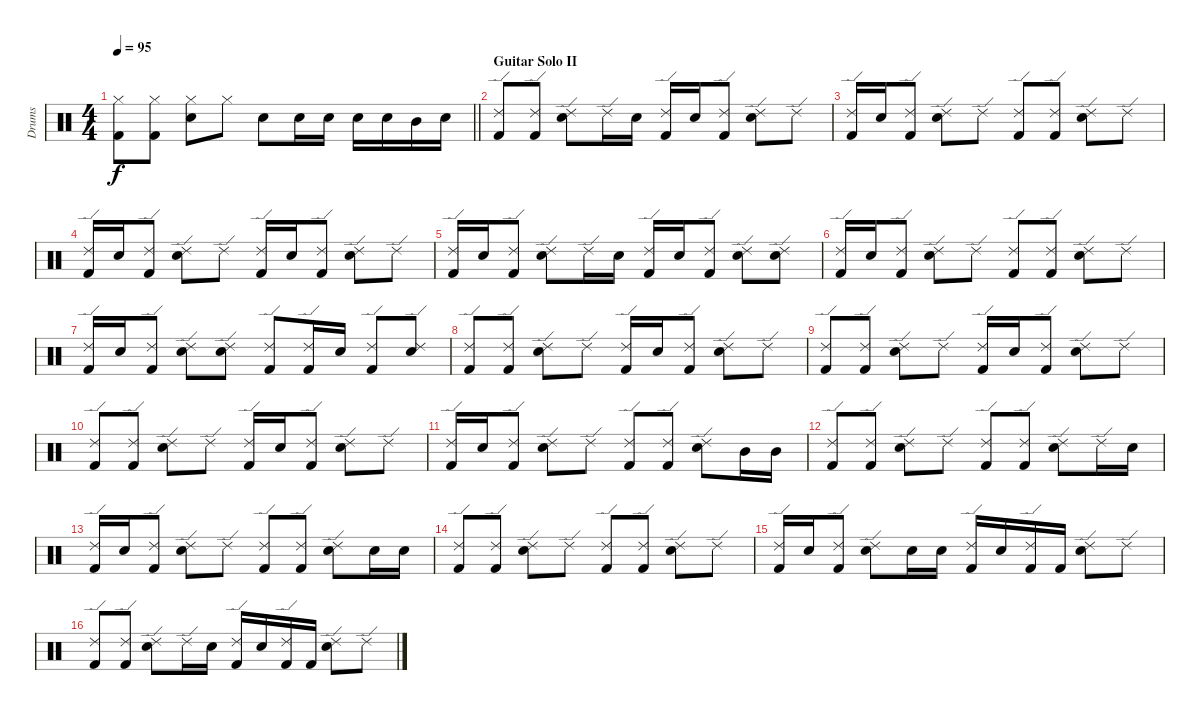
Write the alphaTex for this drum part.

\track ("Drums" "Drums") {instrument percussion}
\staff {score}
\articulation defaults
\ts (4 4)
\tempo 95
\clef neutral
\barLineRight lightlight
\ks c
("Hi-Hat (closed)" "Kick (hit) 2").8{dy f} ("Hi-Hat (closed)" "Kick (hit) 2").8 ("Hi-Hat (closed)" "Snare (hit) 2").8 "Hi-Hat (closed)".8 "Snare (hit) 2".8 "Snare (hit) 2".16 "Snare (hit) 2".16 "Snare (hit) 2".16 "Snare (hit) 2".16 "Mid Tom (hit)".16 "Snare (hit) 2".16 |
\section ("" "Guitar Solo II")
("Ride (edge) 2" "Kick (hit) 2").8 ("Ride (edge) 2" "Kick (hit) 2").8 ("Ride (edge) 2" "Snare (hit) 2").8 "Ride (edge) 2".16 "Snare (hit) 2".16 ("Ride (edge) 2" "Kick (hit) 2").16 "Snare (hit) 2".16 ("Ride (edge) 2" "Kick (hit) 2").8 ("Ride (edge) 2" "Snare (hit) 2").8 "Ride (edge) 2".8 |
("Ride (edge) 2" "Kick (hit) 2").16 "Snare (hit) 2".16 ("Ride (edge) 2" "Kick (hit) 2").8 ("Ride (edge) 2" "Snare (hit) 2").8 "Ride (edge) 2".8 ("Ride (edge) 2" "Kick (hit) 2").8 ("Ride (edge) 2" "Kick (hit) 2").8 ("Ride (edge) 2" "Snare (hit) 2").8 "Ride (edge) 2".8 |
("Ride (edge) 2" "Kick (hit) 2").16 "Snare (hit) 2".16 ("Ride (edge) 2" "Kick (hit) 2").8 ("Ride (edge) 2" "Snare (hit) 2").8 "Ride (edge) 2".8 ("Ride (edge) 2" "Kick (hit) 2").16 "Snare (hit) 2".16 ("Ride (edge) 2" "Kick (hit) 2").8 ("Ride (edge) 2" "Snare (hit) 2").8 "Ride (edge) 2".8 |
("Ride (edge) 2" "Kick (hit) 2").16 "Snare (hit) 2".16 ("Ride (edge) 2" "Kick (hit) 2").8 ("Ride (edge) 2" "Snare (hit) 2").8 "Ride (edge) 2".16 "Snare (hit) 2".16 ("Ride (edge) 2" "Kick (hit) 2").16 "Snare (hit) 2".16 ("Ride (edge) 2" "Kick (hit) 2").8 ("Ride (edge) 2" "Snare (hit) 2").8 ("Ride (edge) 2" "Snare (hit) 2").8 |
("Ride (edge) 2" "Kick (hit) 2").16 "Snare (hit) 2".16 ("Ride (edge) 2" "Kick (hit) 2").8 ("Ride (edge) 2" "Snare (hit) 2").8 "Ride (edge) 2".8 ("Ride (edge) 2" "Kick (hit) 2").8 ("Ride (edge) 2" "Kick (hit) 2").8 ("Ride (edge) 2" "Snare (hit) 2").8 "Ride (edge) 2".8 |
("Ride (edge) 2" "Kick (hit) 2").16 "Snare (hit) 2".16 ("Ride (edge) 2" "Kick (hit) 2").8 ("Ride (edge) 2" "Snare (hit) 2").8 ("Ride (edge) 2" "Snare (hit) 2").8 ("Ride (edge) 2" "Kick (hit) 2").8 ("Ride (edge) 2" "Kick (hit) 2").16 "Snare (hit) 2".16 ("Ride (edge) 2" "Kick (hit) 2").8 ("Ride (edge) 2" "Snare (hit) 2").8 |
("Ride (edge) 2" "Kick (hit) 2").8 ("Ride (edge) 2" "Kick (hit) 2").8 ("Ride (edge) 2" "Snare (hit) 2").8 "Ride (edge) 2".8 ("Ride (edge) 2" "Kick (hit) 2").16 "Snare (hit) 2".16 ("Ride (edge) 2" "Kick (hit) 2").8 ("Ride (edge) 2" "Snare (hit) 2").8 "Ride (edge) 2".8 |
("Ride (edge) 2" "Kick (hit) 2").8 ("Ride (edge) 2" "Kick (hit) 2").8 ("Ride (edge) 2" "Snare (hit) 2").8 "Ride (edge) 2".8 ("Ride (edge) 2" "Kick (hit) 2").16 "Snare (hit) 2".16 ("Ride (edge) 2" "Kick (hit) 2").8 ("Ride (edge) 2" "Snare (hit) 2").8 "Ride (edge) 2".8 |
("Ride (edge) 2" "Kick (hit) 2").8 ("Ride (edge) 2" "Kick (hit) 2").8 ("Ride (edge) 2" "Snare (hit) 2").8 "Ride (edge) 2".8 ("Ride (edge) 2" "Kick (hit) 2").16 "Snare (hit) 2".16 ("Ride (edge) 2" "Kick (hit) 2").8 ("Ride (edge) 2" "Snare (hit) 2").8 "Ride (edge) 2".8 |
("Ride (edge) 2" "Kick (hit) 2").16 "Snare (hit) 2".16 ("Ride (edge) 2" "Kick (hit) 2").8 ("Ride (edge) 2" "Snare (hit) 2").8 "Ride (edge) 2".8 ("Ride (edge) 2" "Kick (hit) 2").8 ("Ride (edge) 2" "Kick (hit) 2").8 ("Ride (edge) 2" "Snare (hit) 2").8 "Mid Tom (hit)".16 "Mid Tom (hit)".16 |
("Ride (edge) 2" "Kick (hit) 2").8 ("Ride (edge) 2" "Kick (hit) 2").8 ("Ride (edge) 2" "Snare (hit) 2").8 "Ride (edge) 2".8 ("Ride (edge) 2" "Kick (hit) 2").8 ("Ride (edge) 2" "Kick (hit) 2").8 ("Ride (edge) 2" "Snare (hit) 2").8 "Ride (edge) 2".16 "Snare (hit) 2".16 |
("Ride (edge) 2" "Kick (hit) 2").16 "Snare (hit) 2".16 ("Ride (edge) 2" "Kick (hit) 2").8 ("Ride (edge) 2" "Snare (hit) 2").8 "Ride (edge) 2".8 ("Ride (edge) 2" "Kick (hit) 2").8 ("Ride (edge) 2" "Kick (hit) 2").8 ("Ride (edge) 2" "Snare (hit) 2").8 "Snare (hit) 2".16 "Snare (hit) 2".16 |
("Ride (edge) 2" "Kick (hit) 2").8 ("Ride (edge) 2" "Kick (hit) 2").8 ("Ride (edge) 2" "Snare (hit) 2").8 "Ride (edge) 2".8 ("Ride (edge) 2" "Kick (hit) 2").8 ("Ride (edge) 2" "Kick (hit) 2").8 ("Ride (edge) 2" "Snare (hit) 2").8 "Ride (edge) 2".8 |
("Ride (edge) 2" "Kick (hit) 2").16 "Snare (hit) 2".16 ("Ride (edge) 2" "Kick (hit) 2").8 ("Ride (edge) 2" "Snare (hit) 2").8 "Snare (hit) 2".16 "Snare (hit) 2".16 ("Ride (edge) 2" "Kick (hit) 2").16 "Snare (hit) 2".16 ("Ride (edge) 2" "Kick (hit) 2").16 "Kick (hit) 2".16 ("Ride (edge) 2" "Snare (hit) 2").8 "Ride (edge) 2".8 |
("Ride (edge) 2" "Kick (hit) 2").8 ("Ride (edge) 2" "Kick (hit) 2").8 ("Ride (edge) 2" "Snare (hit) 2").8 "Ride (edge) 2".16 "Snare (hit) 2".16 ("Ride (edge) 2" "Kick (hit) 2").16 "Snare (hit) 2".16 ("Ride (edge) 2" "Kick (hit) 2").16 "Kick (hit) 2".16 ("Ride (edge) 2" "Snare (hit) 2").8 "Ride (edge) 2".8
